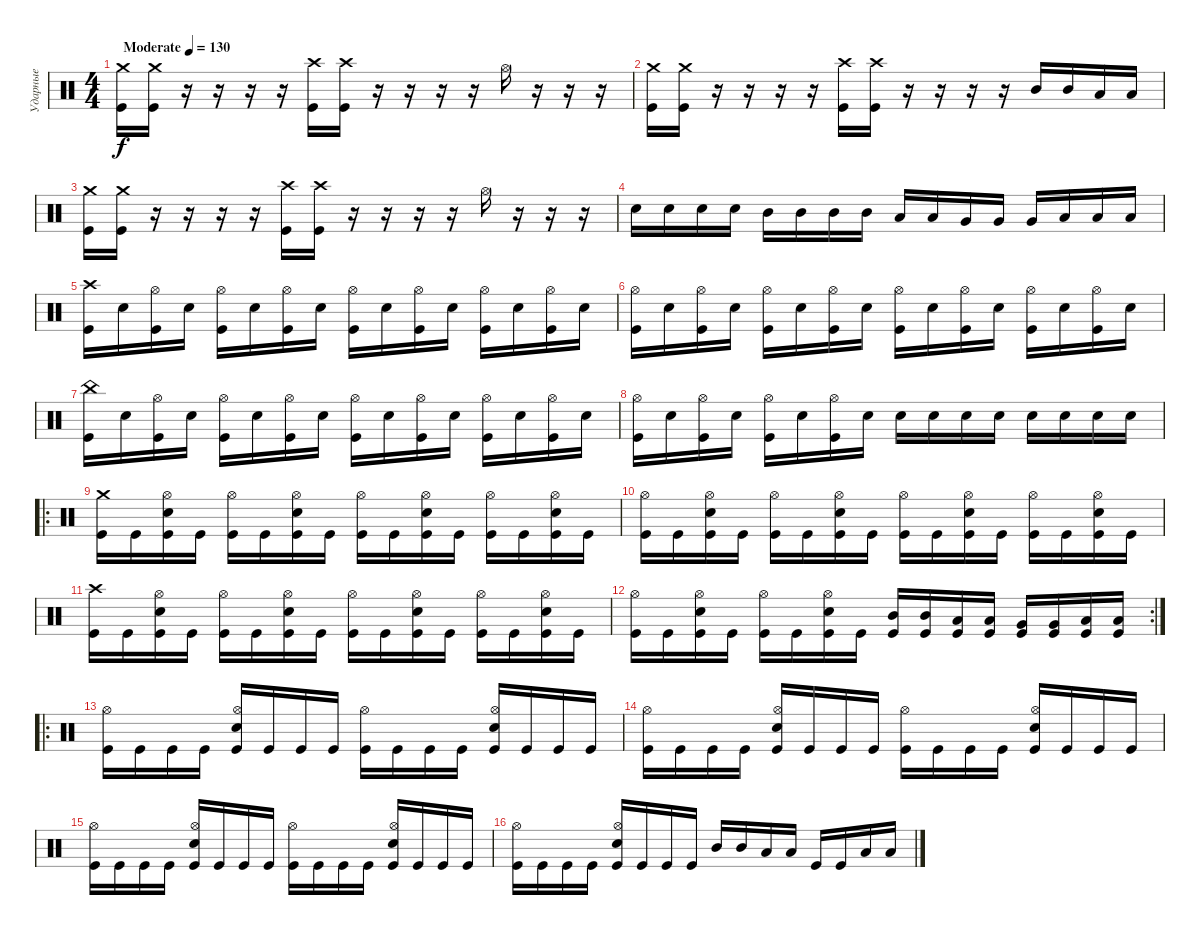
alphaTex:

\track ("Ударные" "Ударные") {instrument percussion}
\staff {score}
\articulation defaults
\ts (4 4)
\tempo (130 "Moderate")
\clef neutral
\ks c
("Crash medium (hit)" "Kick (hit)").16{dy f} ("Crash medium (hit)" "Kick (hit)").16 r.16 r.16 r.16 r.16 ("Crash high (hit)" "Kick (hit)").16 ("Crash high (hit)" "Kick (hit)").16 r.16 r.16 r.16 r.16 "Hi-Hat (open)".16 r.16 r.16 r.16 |
("Crash medium (hit)" "Kick (hit)").16 ("Crash medium (hit)" "Kick (hit)").16 r.16 r.16 r.16 r.16 ("Crash high (hit)" "Kick (hit)").16 ("Crash high (hit)" "Kick (hit)").16 r.16 r.16 r.16 r.16 "Mid Tom (hit)".16 "Mid Tom (hit)".16 "Low Tom (hit)".16 "Low Tom (hit)".16 |
("Crash medium (hit)" "Kick (hit)").16 ("Crash medium (hit)" "Kick (hit)").16 r.16 r.16 r.16 r.16 ("Crash high (hit)" "Kick (hit)").16 ("Crash high (hit)" "Kick (hit)").16 r.16 r.16 r.16 r.16 "Hi-Hat (open)".16 r.16 r.16 r.16 |
"Snare (hit) 2".16 "Snare (hit) 2".16 "Snare (hit) 2".16 "Snare (hit) 2".16 "Mid Tom (hit)".16 "Mid Tom (hit)".16 "Mid Tom (hit)".16 "Mid Tom (hit)".16 "Low Tom (hit)".16 "Low Tom (hit)".16 "Very Low Tom (hit)".16 "Very Low Tom (hit)".16 "Very Low Tom (hit)".16 "Low Tom (hit)".16 "Low Tom (hit)".16 "Low Tom (hit)".16 |
("Crash high (hit)" "Kick (hit)").16 "Snare (hit) 2".16 ("Hi-Hat (open)" "Kick (hit)").16 "Snare (hit) 2".16 ("Hi-Hat (open)" "Kick (hit)").16 "Snare (hit) 2".16 ("Hi-Hat (open)" "Kick (hit)").16 "Snare (hit) 2".16 ("Hi-Hat (open)" "Kick (hit)").16 "Snare (hit) 2".16 ("Hi-Hat (open)" "Kick (hit)").16 "Snare (hit) 2".16 ("Hi-Hat (open)" "Kick (hit)").16 "Snare (hit) 2".16 ("Hi-Hat (open)" "Kick (hit)").16 "Snare (hit) 2".16 |
("Hi-Hat (open)" "Kick (hit)").16 "Snare (hit) 2".16 ("Hi-Hat (open)" "Kick (hit)").16 "Snare (hit) 2".16 ("Hi-Hat (open)" "Kick (hit)").16 "Snare (hit) 2".16 ("Hi-Hat (open)" "Kick (hit)").16 "Snare (hit) 2".16 ("Hi-Hat (open)" "Kick (hit)").16 "Snare (hit) 2".16 ("Hi-Hat (open)" "Kick (hit)").16 "Snare (hit) 2".16 ("Hi-Hat (open)" "Kick (hit)").16 "Snare (hit) 2".16 ("Hi-Hat (open)" "Kick (hit)").16 "Snare (hit) 2".16 |
("China (hit)" "Kick (hit)").16 "Snare (hit) 2".16 ("Hi-Hat (open)" "Kick (hit)").16 "Snare (hit) 2".16 ("Hi-Hat (open)" "Kick (hit)").16 "Snare (hit) 2".16 ("Hi-Hat (open)" "Kick (hit)").16 "Snare (hit) 2".16 ("Hi-Hat (open)" "Kick (hit)").16 "Snare (hit) 2".16 ("Hi-Hat (open)" "Kick (hit)").16 "Snare (hit) 2".16 ("Hi-Hat (open)" "Kick (hit)").16 "Snare (hit) 2".16 ("Hi-Hat (open)" "Kick (hit)").16 "Snare (hit) 2".16 |
("Hi-Hat (open)" "Kick (hit)").16 "Snare (hit) 2".16 ("Hi-Hat (open)" "Kick (hit)").16 "Snare (hit) 2".16 ("Hi-Hat (open)" "Kick (hit)").16 "Snare (hit) 2".16 ("Hi-Hat (open)" "Kick (hit)").16 "Snare (hit) 2".16 "Snare (hit) 2".16 "Snare (hit) 2".16 "Snare (hit) 2".16 "Snare (hit) 2".16 "Snare (hit) 2".16 "Snare (hit) 2".16 "Snare (hit) 2".16 "Snare (hit) 2".16 |
\ro
("Crash medium (hit)" "Kick (hit)").16 "Kick (hit)".16 ("Hi-Hat (open)" "Snare (hit) 2" "Kick (hit)").16 "Kick (hit)".16 ("Hi-Hat (open)" "Kick (hit)").16 "Kick (hit)".16 ("Hi-Hat (open)" "Snare (hit) 2" "Kick (hit)").16 "Kick (hit)".16 ("Hi-Hat (open)" "Kick (hit)").16 "Kick (hit)".16 ("Hi-Hat (open)" "Snare (hit) 2" "Kick (hit)").16 "Kick (hit)".16 ("Hi-Hat (open)" "Kick (hit)").16 "Kick (hit)".16 ("Hi-Hat (open)" "Snare (hit) 2" "Kick (hit)").16 "Kick (hit)".16 |
("Hi-Hat (open)" "Kick (hit)").16 "Kick (hit)".16 ("Hi-Hat (open)" "Snare (hit) 2" "Kick (hit)").16 "Kick (hit)".16 ("Hi-Hat (open)" "Kick (hit)").16 "Kick (hit)".16 ("Hi-Hat (open)" "Snare (hit) 2" "Kick (hit)").16 "Kick (hit)".16 ("Hi-Hat (open)" "Kick (hit)").16 "Kick (hit)".16 ("Hi-Hat (open)" "Snare (hit) 2" "Kick (hit)").16 "Kick (hit)".16 ("Hi-Hat (open)" "Kick (hit)").16 "Kick (hit)".16 ("Hi-Hat (open)" "Snare (hit) 2" "Kick (hit)").16 "Kick (hit)".16 |
("Crash high (hit)" "Kick (hit)").16 "Kick (hit)".16 ("Hi-Hat (open)" "Snare (hit) 2" "Kick (hit)").16 "Kick (hit)".16 ("Hi-Hat (open)" "Kick (hit)").16 "Kick (hit)".16 ("Hi-Hat (open)" "Snare (hit) 2" "Kick (hit)").16 "Kick (hit)".16 ("Hi-Hat (open)" "Kick (hit)").16 "Kick (hit)".16 ("Hi-Hat (open)" "Snare (hit) 2" "Kick (hit)").16 "Kick (hit)".16 ("Hi-Hat (open)" "Kick (hit)").16 "Kick (hit)".16 ("Hi-Hat (open)" "Snare (hit) 2" "Kick (hit)").16 "Kick (hit)".16 |
\rc 2
("Hi-Hat (open)" "Kick (hit)").16 "Kick (hit)".16 ("Hi-Hat (open)" "Snare (hit) 2" "Kick (hit)").16 "Kick (hit)".16 ("Hi-Hat (open)" "Kick (hit)").16 "Kick (hit)".16 ("Hi-Hat (open)" "Snare (hit) 2" "Kick (hit)").16 "Kick (hit)".16 ("Mid Tom (hit)" "Kick (hit)").16 ("Mid Tom (hit)" "Kick (hit)").16 ("Low Tom (hit)" "Kick (hit)").16 ("Low Tom (hit)" "Kick (hit)").16 ("Very Low Tom (hit)" "Kick (hit)").16 ("Very Low Tom (hit)" "Kick (hit)").16 ("Low Tom (hit)" "Kick (hit)").16 ("Low Tom (hit)" "Kick (hit)").16 |
\ro
("Hi-Hat (open)" "Kick (hit)").16 "Kick (hit)".16 "Kick (hit)".16 "Kick (hit)".16 ("Hi-Hat (open)" "Snare (hit) 2" "Kick (hit)").16 "Kick (hit)".16 "Kick (hit)".16 "Kick (hit)".16 ("Hi-Hat (open)" "Kick (hit)").16 "Kick (hit)".16 "Kick (hit)".16 "Kick (hit)".16 ("Hi-Hat (open)" "Snare (hit) 2" "Kick (hit)").16 "Kick (hit)".16 "Kick (hit)".16 "Kick (hit)".16 |
("Hi-Hat (open)" "Kick (hit)").16 "Kick (hit)".16 "Kick (hit)".16 "Kick (hit)".16 ("Hi-Hat (open)" "Snare (hit) 2" "Kick (hit)").16 "Kick (hit)".16 "Kick (hit)".16 "Kick (hit)".16 ("Hi-Hat (open)" "Kick (hit)").16 "Kick (hit)".16 "Kick (hit)".16 "Kick (hit)".16 ("Hi-Hat (open)" "Snare (hit) 2" "Kick (hit)").16 "Kick (hit)".16 "Kick (hit)".16 "Kick (hit)".16 |
("Hi-Hat (open)" "Kick (hit)").16 "Kick (hit)".16 "Kick (hit)".16 "Kick (hit)".16 ("Hi-Hat (open)" "Snare (hit) 2" "Kick (hit)").16 "Kick (hit)".16 "Kick (hit)".16 "Kick (hit)".16 ("Hi-Hat (open)" "Kick (hit)").16 "Kick (hit)".16 "Kick (hit)".16 "Kick (hit)".16 ("Hi-Hat (open)" "Snare (hit) 2" "Kick (hit)").16 "Kick (hit)".16 "Kick (hit)".16 "Kick (hit)".16 |
("Hi-Hat (open)" "Kick (hit)").16 "Kick (hit)".16 "Kick (hit)".16 "Kick (hit)".16 ("Hi-Hat (open)" "Snare (hit) 2" "Kick (hit)").16 "Kick (hit)".16 "Kick (hit)".16 "Kick (hit)".16 "Mid Tom (hit)".16 "Mid Tom (hit)".16 "Low Tom (hit)".16 "Low Tom (hit)".16 "Kick (hit)".16 "Kick (hit)".16 "Low Tom (hit)".16 "Low Tom (hit)".16
